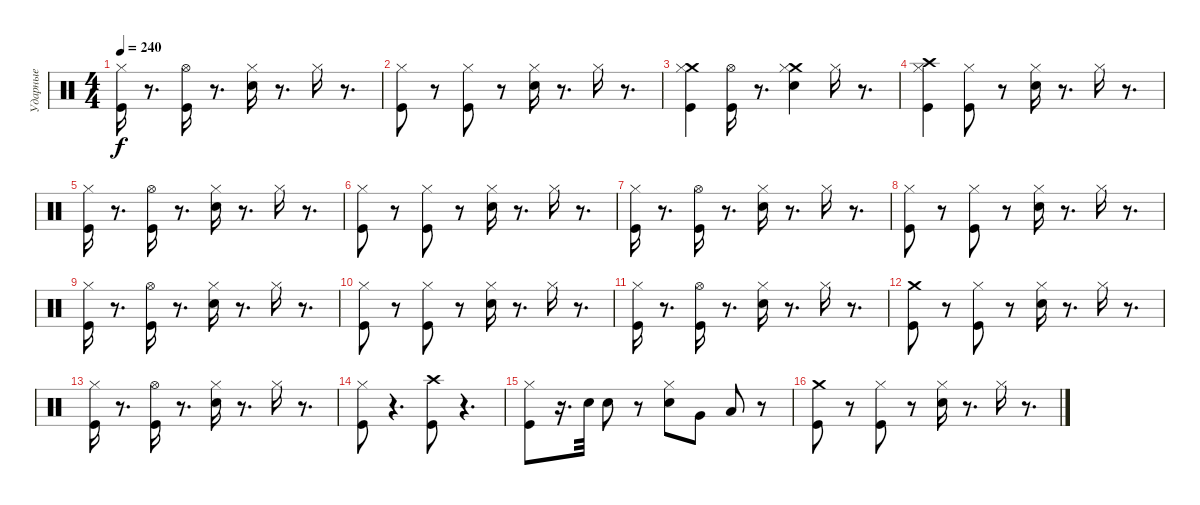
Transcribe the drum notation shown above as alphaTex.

\track ("Ударные" "Ударные") {instrument percussion}
\staff {score}
\articulation defaults
\ts (4 4)
\tempo 240
\clef neutral
\ks c
("Kick (hit)" "Hi-Hat (closed)").16{dy f} r.8{d} ("Kick (hit)" "Hi-Hat (open)").16 r.8{d} ("Snare (hit) 2" "Hi-Hat (closed)").16 r.8{d} "Hi-Hat (closed)".16 r.8{d} |
("Hi-Hat (closed)" "Kick (hit)").8 r.8 ("Kick (hit)" "Hi-Hat (closed)").8 r.8 ("Snare (hit) 2" "Hi-Hat (closed)").16 r.8{d} "Hi-Hat (closed)".16 r.8{d} |
("Crash medium (hit)" "Kick (hit)" "Hi-Hat (closed)").4 ("Kick (hit)" "Hi-Hat (open)").16 r.8{d} ("Crash medium (hit)" "Snare (hit) 2" "Hi-Hat (closed)").4 "Hi-Hat (closed)".16 r.8{d} |
("Crash high (hit)" "Hi-Hat (closed)" "Kick (hit)").4 ("Kick (hit)" "Hi-Hat (closed)").8 r.8 ("Snare (hit) 2" "Hi-Hat (closed)").16 r.8{d} "Hi-Hat (closed)".16 r.8{d} |
("Kick (hit)" "Hi-Hat (closed)").16 r.8{d} ("Kick (hit)" "Hi-Hat (open)").16 r.8{d} ("Snare (hit) 2" "Hi-Hat (closed)").16 r.8{d} "Hi-Hat (closed)".16 r.8{d} |
("Hi-Hat (closed)" "Kick (hit)").8 r.8 ("Kick (hit)" "Hi-Hat (closed)").8 r.8 ("Snare (hit) 2" "Hi-Hat (closed)").16 r.8{d} "Hi-Hat (closed)".16 r.8{d} |
("Kick (hit)" "Hi-Hat (closed)").16 r.8{d} ("Kick (hit)" "Hi-Hat (open)").16 r.8{d} ("Snare (hit) 2" "Hi-Hat (closed)").16 r.8{d} "Hi-Hat (closed)".16 r.8{d} |
("Hi-Hat (closed)" "Kick (hit)").8 r.8 ("Kick (hit)" "Hi-Hat (closed)").8 r.8 ("Snare (hit) 2" "Hi-Hat (closed)").16 r.8{d} "Hi-Hat (closed)".16 r.8{d} |
("Kick (hit)" "Hi-Hat (closed)").16 r.8{d} ("Kick (hit)" "Hi-Hat (open)").16 r.8{d} ("Snare (hit) 2" "Hi-Hat (closed)").16 r.8{d} "Hi-Hat (closed)".16 r.8{d} |
("Hi-Hat (closed)" "Kick (hit)").8 r.8 ("Kick (hit)" "Hi-Hat (closed)").8 r.8 ("Snare (hit) 2" "Hi-Hat (closed)").16 r.8{d} "Hi-Hat (closed)".16 r.8{d} |
("Kick (hit)" "Hi-Hat (closed)").16 r.8{d} ("Kick (hit)" "Hi-Hat (open)").16 r.8{d} ("Snare (hit) 2" "Hi-Hat (closed)").16 r.8{d} "Hi-Hat (closed)".16 r.8{d} |
("Crash medium (hit)" "Kick (hit)").8 r.8 ("Kick (hit)" "Hi-Hat (closed)").8 r.8 ("Snare (hit) 2" "Hi-Hat (closed)").16 r.8{d} "Hi-Hat (closed)".16 r.8{d} |
("Kick (hit)" "Hi-Hat (closed)").16 r.8{d} ("Kick (hit)" "Hi-Hat (open)").16 r.8{d} ("Snare (hit) 2" "Hi-Hat (closed)").16 r.8{d} "Hi-Hat (closed)".16 r.8{d} |
("Hi-Hat (closed)" "Kick (hit)").8 r.4{d} ("Kick (hit)" "Crash high (hit)").8 r.4{d} |
("Kick (hit)" "Hi-Hat (closed)").8 r.16{d} "Snare (hit) 2".32 "Snare (hit) 2".8 r.8 ("Hi-Hat (closed)" "Snare (hit) 2").8 "Very Low Tom (hit)".8 "Low Tom (hit)".8 r.8 |
("Crash medium (hit)" "Kick (hit)").8 r.8 ("Kick (hit)" "Hi-Hat (closed)").8 r.8 ("Snare (hit) 2" "Hi-Hat (closed)").16 r.8{d} "Hi-Hat (closed)".16 r.8{d}
